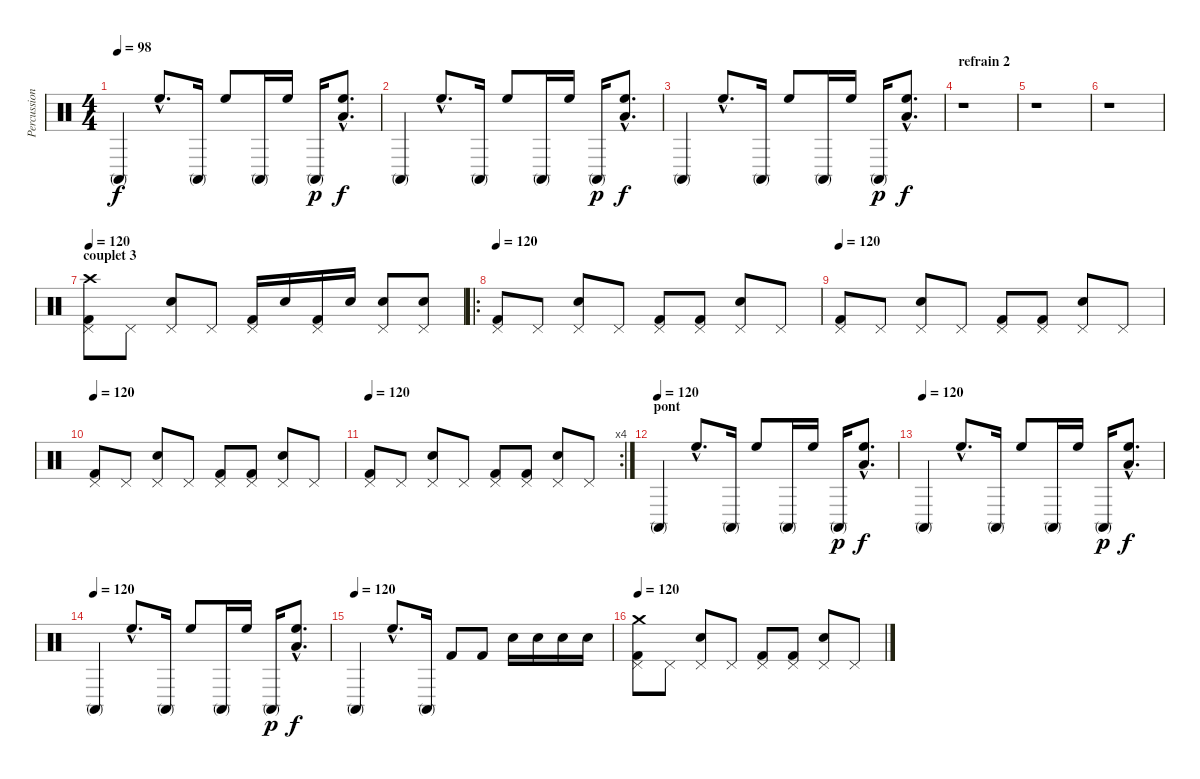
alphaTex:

\track ("Percussions" "Percussion") {instrument percussion}
\staff {score}
\articulation defaults
\ts (4 4)
\tempo 98
\clef neutral
\ks c "Conga high (mute)".4{dy f} "High Floor Tom (hit)"{hac}.8{d} "Conga high (mute)".16 "High Floor Tom (hit)".8 "Conga high (mute)".16 "High Floor Tom (hit)".16 "Conga high (mute)".16{dy p}
("High Floor Tom (hit)"{hac} "Low Tom (hit)"{hac}).8{d dy f} |
"Conga high (mute)".4 "High Floor Tom (hit)"{hac}.8{d} "Conga high (mute)".16 "High Floor Tom (hit)".8 "Conga high (mute)".16 "High Floor Tom (hit)".16 "Conga high (mute)".16{dy p} ("High Floor Tom (hit)"{hac} "Low Tom (hit)"{hac}).8{d dy f} |
"Conga high (mute)".4 "High Floor Tom (hit)"{hac}.8{d} "Conga high (mute)".16 "High Floor Tom (hit)".8 "Conga high (mute)".16 "High Floor Tom (hit)".16 "Conga high (mute)".16{dy p} ("High Floor Tom (hit)"{hac} "Low Tom (hit)"{hac}).8{d dy f} |
\section ("" "refrain 2")
r.1 |
r.1 |
r.1 |
\section ("" "couplet 3")
\tempo 120
("Pedal Hi-Hat (hit)" "Kick (hit) 2" "Crash high (hit)").8 "Pedal Hi-Hat (hit)".8 ("Pedal Hi-Hat (hit)" "Electric Snare (hit)").8 "Pedal Hi-Hat (hit)".8 ("Pedal Hi-Hat (hit)" "Kick (hit) 2").16 "Electric Snare (hit)".16 ("Pedal Hi-Hat (hit)" "Kick (hit) 2").16 "Electric Snare (hit)".16 ("Pedal Hi-Hat (hit)" "Electric Snare (hit)").8 ("Pedal Hi-Hat (hit)" "Electric Snare (hit)").8 |
\ro
\tempo 120
("Pedal Hi-Hat (hit)" "Kick (hit) 2").8 "Pedal Hi-Hat (hit)".8 ("Pedal Hi-Hat (hit)" "Electric Snare (hit)").8 "Pedal Hi-Hat (hit)".8 ("Pedal Hi-Hat (hit)" "Kick (hit) 2").8 ("Pedal Hi-Hat (hit)" "Kick (hit) 2").8 ("Pedal Hi-Hat (hit)" "Electric Snare (hit)").8 "Pedal Hi-Hat (hit)".8 |
\tempo 120
("Pedal Hi-Hat (hit)" "Kick (hit) 2").8 "Pedal Hi-Hat (hit)".8 ("Pedal Hi-Hat (hit)" "Electric Snare (hit)").8 "Pedal Hi-Hat (hit)".8 ("Pedal Hi-Hat (hit)" "Kick (hit) 2").8 ("Pedal Hi-Hat (hit)" "Kick (hit) 2").8 ("Pedal Hi-Hat (hit)" "Electric Snare (hit)").8 "Pedal Hi-Hat (hit)".8 |
\tempo 120
("Pedal Hi-Hat (hit)" "Kick (hit) 2").8 "Pedal Hi-Hat (hit)".8 ("Pedal Hi-Hat (hit)" "Electric Snare (hit)").8 "Pedal Hi-Hat (hit)".8 ("Pedal Hi-Hat (hit)" "Kick (hit) 2").8 ("Pedal Hi-Hat (hit)" "Kick (hit) 2").8 ("Pedal Hi-Hat (hit)" "Electric Snare (hit)").8 "Pedal Hi-Hat (hit)".8 |
\rc 4
\tempo 120
("Pedal Hi-Hat (hit)" "Kick (hit) 2").8 "Pedal Hi-Hat (hit)".8 ("Pedal Hi-Hat (hit)" "Electric Snare (hit)").8 "Pedal Hi-Hat (hit)".8 ("Pedal Hi-Hat (hit)" "Kick (hit) 2").8 ("Pedal Hi-Hat (hit)" "Kick (hit) 2").8 ("Pedal Hi-Hat (hit)" "Electric Snare (hit)").8 "Pedal Hi-Hat (hit)".8 |
\section ("" "pont")
\tempo (120)
"Conga high (mute)".4 "High Floor Tom (hit)"{hac}.8{d} "Conga high (mute)".16 "High Floor Tom (hit)".8 "Conga high (mute)".16 "High Floor Tom (hit)".16 "Conga high (mute)".16{dy p} ("High Floor Tom (hit)"{hac} "Low Tom (hit)"{hac}).8{d dy f} |
\tempo (120)
"Conga high (mute)".4 "High Floor Tom (hit)"{hac}.8{d} "Conga high (mute)".16 "High Floor Tom (hit)".8 "Conga high (mute)".16 "High Floor Tom (hit)".16 "Conga high (mute)".16{dy p} ("High Floor Tom (hit)"{hac} "Low Tom (hit)"{hac}).8{d dy f} |
\tempo (120)
"Conga high (mute)".4 "High Floor Tom (hit)"{hac}.8{d} "Conga high (mute)".16 "High Floor Tom (hit)".8 "Conga high (mute)".16 "High Floor Tom (hit)".16 "Conga high (mute)".16{dy p} ("High Floor Tom (hit)"{hac} "Low Tom (hit)"{hac}).8{d dy f} |
\tempo (120)
"Conga high (mute)".4 "High Floor Tom (hit)"{hac}.8{d} "Conga high (mute)".16 "Kick (hit) 2".8 "Kick (hit) 2".8 "Electric Snare (hit)".16 "Electric Snare (hit)".16 "Electric Snare (hit)".16 "Electric Snare (hit)".16 |
\tempo 120
("Pedal Hi-Hat (hit)" "Crash medium (hit)" "Kick (hit) 2").8 "Pedal Hi-Hat (hit)".8 ("Pedal Hi-Hat (hit)" "Electric Snare (hit)").8 "Pedal Hi-Hat (hit)".8 ("Pedal Hi-Hat (hit)" "Kick (hit) 2").8 ("Pedal Hi-Hat (hit)" "Kick (hit) 2").8 ("Pedal Hi-Hat (hit)" "Electric Snare (hit)").8 "Pedal Hi-Hat (hit)".8
